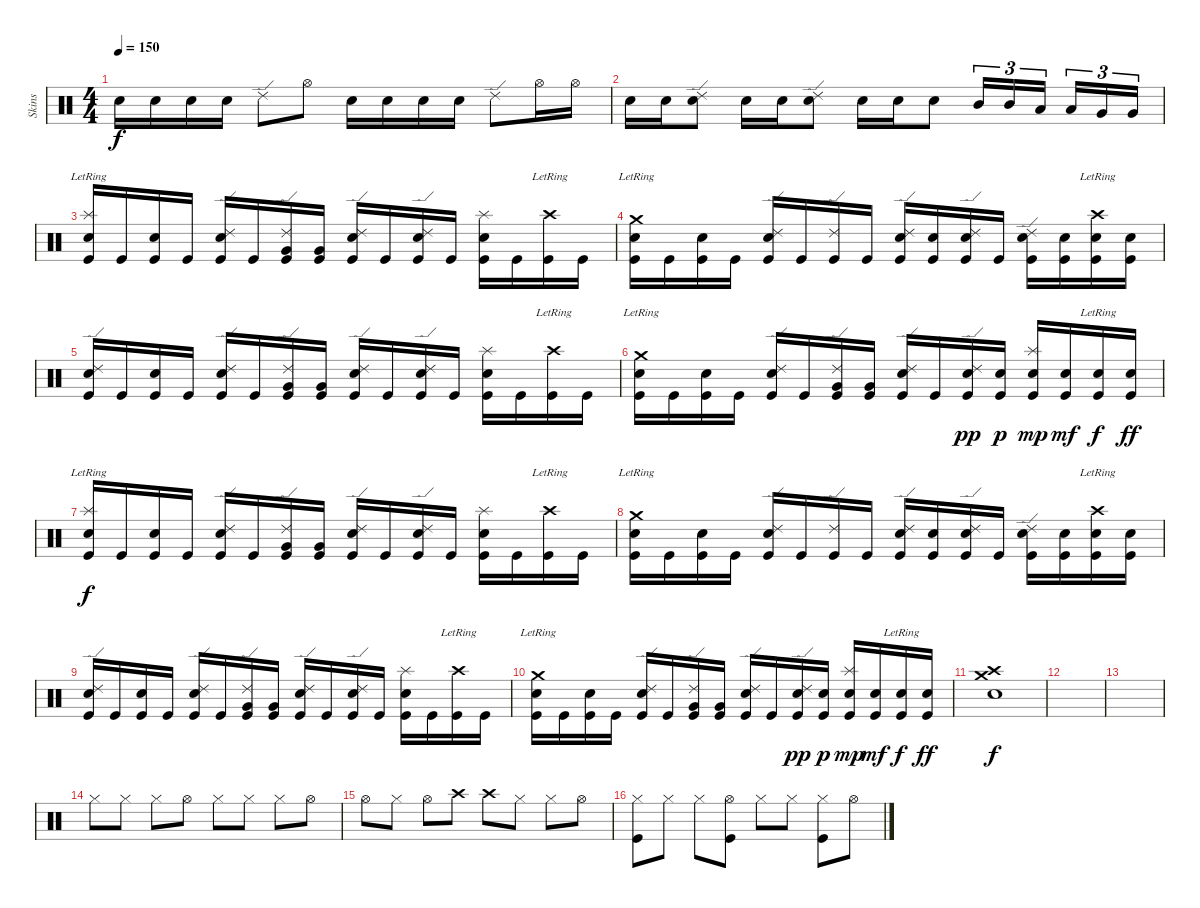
\track ("Skins" "Skins") {instrument percussion}
\staff {score}
\articulation defaults
\ts (4 4)
\tempo 150
\clef neutral
\ks c "Snare (hit) 2".16{dy f} "Snare (hit) 2".16 "Snare (hit) 2".16 "Snare (hit) 2".16 "Ride (edge) 2".8 "Hi-Hat (open)".8 "Snare (hit) 2".16 "Snare (hit) 2".16 "Snare (hit) 2".16 "Snare (hit) 2".16 "Ride (edge) 2".8 "Hi-Hat (open)".16 "Hi-Hat (open)".16
|
"Snare (hit) 2".16 "Snare (hit) 2".16 ("Snare (hit) 2" "Ride (edge) 2").8 "Electric Snare (hit)".16 "Electric Snare (hit)".16 ("Electric Snare (hit)" "Ride (edge) 2").8 "Snare (hit) 2".16 "Snare (hit) 2".16 "Snare (hit) 2".8 "Mid Tom (hit)".16{tu (3 2)} "Mid Tom (hit)".16{tu (3 2)} "Low Tom (hit)".16{tu (3 2)} "Low Tom (hit)".16{tu (3 2)} "Very Low Tom (hit)".16{tu (3 2)} "Very Low Tom (hit)".16{tu (3 2)} |
("Snare (hit) 2" "Splash (hit)"{lr} "Kick (hit)").16 "Kick (hit)".16 ("Snare (hit) 2" "Kick (hit)").16 "Kick (hit)".16 ("Snare (hit) 2" "Ride (edge) 2" "Kick (hit)").16 "Kick (hit)".16 ("Very Low Tom (hit)" "Ride (edge) 2" "Kick (hit)").16 ("Very Low Tom (hit)" "Kick (hit)").16 ("Snare (hit) 2" "Ride (edge) 2" "Kick (hit)").16 "Kick (hit)".16 ("Snare (hit) 2" "Ride (edge) 2" "Kick (hit)").16 "Kick (hit)".16 ("Snare (hit) 2" "Splash (hit)" "Kick (hit)").16 "Kick (hit)".16 ("Crash high (hit)"{lr} "Kick (hit)").16 "Kick (hit)".16 |
("Snare (hit) 2" "Crash medium (hit)"{lr} "Kick (hit)").16 "Kick (hit)".16 ("Snare (hit) 2" "Kick (hit)").16 "Kick (hit)".16 ("Snare (hit) 2" "Ride (edge) 2" "Kick (hit)").16 "Kick (hit)".16 ("Ride (edge) 2" "Kick (hit)").16 "Kick (hit)".16 ("Electric Snare (hit)" "Ride (edge) 2" "Kick (hit)").16 ("Snare (hit) 2" "Kick (hit)").16 ("Electric Snare (hit)" "Ride (edge) 2" "Kick (hit)").16 "Kick (hit)".16 ("Electric Snare (hit)" "Ride (edge) 2" "Kick (hit)").16 ("Snare (hit) 2" "Kick (hit)").16 ("Electric Snare (hit)" "Crash high (hit)"{lr} "Kick (hit)").16 ("Electric Snare (hit)" "Kick (hit)").16 |
("Snare (hit) 2" "Ride (edge) 2" "Kick (hit)").16 "Kick (hit)".16 ("Snare (hit) 2" "Kick (hit)").16 "Kick (hit)".16 ("Snare (hit) 2" "Ride (edge) 2" "Kick (hit)").16 "Kick (hit)".16 ("Very Low Tom (hit)" "Ride (edge) 2" "Kick (hit)").16 ("Very Low Tom (hit)" "Kick (hit)").16 ("Snare (hit) 2" "Ride (edge) 2" "Kick (hit)").16 "Kick (hit)".16 ("Snare (hit) 2" "Ride (edge) 2" "Kick (hit)").16 "Kick (hit)".16 ("Snare (hit) 2" "Splash (hit)" "Kick (hit)").16 "Kick (hit)".16 ("Crash high (hit)"{lr} "Kick (hit)").16 "Kick (hit)".16 |
("Snare (hit) 2" "Crash medium (hit)"{lr} "Kick (hit)").16 "Kick (hit)".16 ("Snare (hit) 2" "Kick (hit)").16 "Kick (hit)".16 ("Snare (hit) 2" "Ride (edge) 2" "Kick (hit)").16 "Kick (hit)".16 ("Very Low Tom (hit)" "Ride (edge) 2" "Kick (hit)").16 ("Very Low Tom (hit)" "Kick (hit)").16 ("Snare (hit) 2" "Ride (edge) 2" "Kick (hit)").16 "Kick (hit)".16 ("Electric Snare (hit)" "Ride (edge) 2" "Kick (hit)").16{dy pp} ("Electric Snare (hit)" "Kick (hit)").16{dy p} ("Electric Snare (hit)" "Splash (hit)" "Kick (hit)").16{dy mp} ("Electric Snare (hit)" "Kick (hit)").16{dy mf} ("Electric Snare (hit)"{lr} "Kick (hit)").16{dy f} ("Electric Snare (hit)" "Kick (hit)").16{dy ff} |
("Snare (hit) 2" "Splash (hit)"{lr} "Kick (hit)").16{dy f} "Kick (hit)".16 ("Snare (hit) 2" "Kick (hit)").16 "Kick (hit)".16 ("Snare (hit) 2" "Ride (edge) 2" "Kick (hit)").16 "Kick (hit)".16 ("Very Low Tom (hit)" "Ride (edge) 2" "Kick (hit)").16 ("Very Low Tom (hit)" "Kick (hit)").16 ("Snare (hit) 2" "Ride (edge) 2" "Kick (hit)").16 "Kick (hit)".16 ("Snare (hit) 2" "Ride (edge) 2" "Kick (hit)").16 "Kick (hit)".16 ("Snare (hit) 2" "Splash (hit)" "Kick (hit)").16 "Kick (hit)".16 ("Crash high (hit)"{lr} "Kick (hit)").16 "Kick (hit)".16 |
("Snare (hit) 2" "Crash medium (hit)"{lr} "Kick (hit)").16 "Kick (hit)".16 ("Snare (hit) 2" "Kick (hit)").16 "Kick (hit)".16 ("Snare (hit) 2" "Ride (edge) 2" "Kick (hit)").16 "Kick (hit)".16 ("Ride (edge) 2" "Kick (hit)").16 "Kick (hit)".16 ("Electric Snare (hit)" "Ride (edge) 2" "Kick (hit)").16 ("Snare (hit) 2" "Kick (hit)").16 ("Electric Snare (hit)" "Ride (edge) 2" "Kick (hit)").16 "Kick (hit)".16 ("Electric Snare (hit)" "Ride (edge) 2" "Kick (hit)").16 ("Snare (hit) 2" "Kick (hit)").16 ("Electric Snare (hit)" "Crash high (hit)"{lr} "Kick (hit)").16 ("Electric Snare (hit)" "Kick (hit)").16 |
("Snare (hit) 2" "Ride (edge) 2" "Kick (hit)").16 "Kick (hit)".16 ("Snare (hit) 2" "Kick (hit)").16 "Kick (hit)".16 ("Snare (hit) 2" "Ride (edge) 2" "Kick (hit)").16 "Kick (hit)".16 ("Very Low Tom (hit)" "Ride (edge) 2" "Kick (hit)").16 ("Very Low Tom (hit)" "Kick (hit)").16 ("Snare (hit) 2" "Ride (edge) 2" "Kick (hit)").16 "Kick (hit)".16 ("Snare (hit) 2" "Ride (edge) 2" "Kick (hit)").16 "Kick (hit)".16 ("Snare (hit) 2" "Splash (hit)" "Kick (hit)").16 "Kick (hit)".16 ("Crash high (hit)"{lr} "Kick (hit)").16 "Kick (hit)".16 |
("Snare (hit) 2" "Crash medium (hit)"{lr} "Kick (hit)").16 "Kick (hit)".16 ("Snare (hit) 2" "Kick (hit)").16 "Kick (hit)".16 ("Snare (hit) 2" "Ride (edge) 2" "Kick (hit)").16 "Kick (hit)".16 ("Very Low Tom (hit)" "Ride (edge) 2" "Kick (hit)").16 ("Very Low Tom (hit)" "Kick (hit)").16 ("Snare (hit) 2" "Ride (edge) 2" "Kick (hit)").16 "Kick (hit)".16 ("Electric Snare (hit)" "Ride (edge) 2" "Kick (hit)").16{dy pp} ("Electric Snare (hit)" "Kick (hit)").16{dy p} ("Electric Snare (hit)" "Splash (hit)" "Kick (hit)").16{dy mp} ("Electric Snare (hit)" "Kick (hit)").16{dy mf} ("Electric Snare (hit)"{lr} "Kick (hit)").16{dy f} ("Electric Snare (hit)" "Kick (hit)").16{dy ff} |
("Crash high (hit)" "Crash medium (hit)" "Electric Snare (hit)").1{dy f} |
|
|
"Hi-Hat (closed)".8 "Hi-Hat (closed)".8 "Hi-Hat (closed)".8 "Hi-Hat (open)".8 "Hi-Hat (closed)".8 "Hi-Hat (closed)".8 "Hi-Hat (closed)".8 "Hi-Hat (open)".8 |
"Hi-Hat (open)".8 "Hi-Hat (closed)".8 "Hi-Hat (open)".8 "Crash high (hit)".8 "Crash high (hit)".8 "Hi-Hat (closed)".8 "Hi-Hat (closed)".8 "Hi-Hat (open)".8 |
("Hi-Hat (closed)" "Kick (hit)").8 "Hi-Hat (closed)".8 "Hi-Hat (closed)".8 ("Hi-Hat (open)" "Kick (hit)").8 "Hi-Hat (closed)".8 "Hi-Hat (closed)".8 ("Hi-Hat (closed)" "Kick (hit)").8 "Hi-Hat (open)".8
